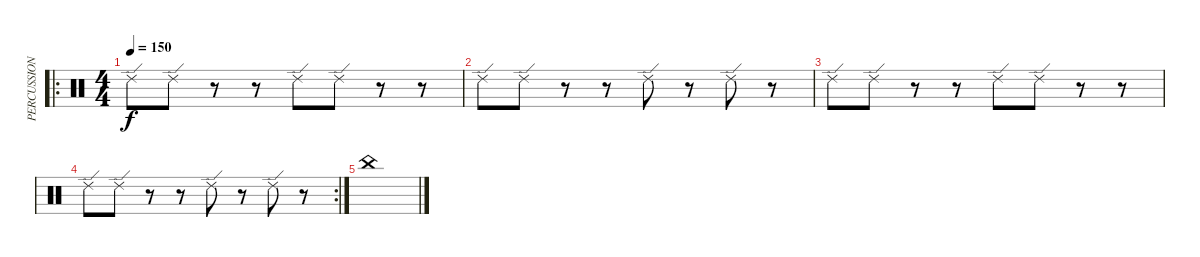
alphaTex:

\track ("PERCUSSION" "PERCUSSION") {instrument percussion}
\staff {score}
\articulation defaults
\ro
\ts (4 4)
\tempo 150
\clef neutral
\ks c "Ride (edge) 2".8{dy f} "Ride (edge) 2".8
r.8 r.8 "Ride (edge) 2".8 "Ride (edge) 2".8 r.8 r.8 |
"Ride (edge) 2".8 "Ride (edge) 2".8 r.8 r.8 "Ride (edge) 2".8 r.8 "Ride (edge) 2".8 r.8 |
"Ride (edge) 2".8 "Ride (edge) 2".8 r.8 r.8 "Ride (edge) 2".8 "Ride (edge) 2".8 r.8 r.8 |
\rc 2 "Ride (edge) 2".8 "Ride (edge) 2".8
r.8 r.8 "Ride (edge) 2".8 r.8 "Ride (edge) 2".8 r.8 |
"China (hit)".1
